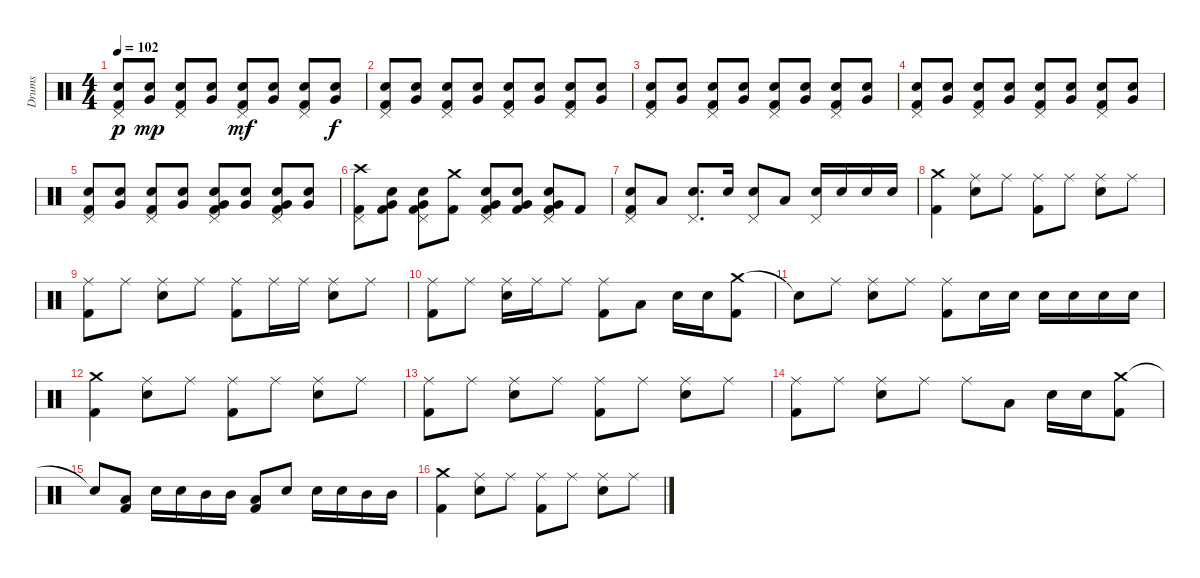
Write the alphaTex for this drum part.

\track ("Drums" "Drums") {instrument percussion}
\staff {score}
\articulation defaults
\ts (4 4)
\tempo 102
\clef neutral
\ks c
("Pedal Hi-Hat (hit)" "Snare (hit) 2" "Kick (hit) 2").8{dy p} ("Snare (hit) 2" "Very Low Tom (hit)").8{dy mp} ("Pedal Hi-Hat (hit)" "Snare (hit) 2" "Kick (hit) 2").8 ("Snare (hit) 2" "Very Low Tom (hit)").8 ("Pedal Hi-Hat (hit)" "Snare (hit) 2" "Kick (hit) 2").8{dy mf} ("Snare (hit) 2" "Very Low Tom (hit)").8 ("Pedal Hi-Hat (hit)" "Snare (hit) 2" "Kick (hit) 2").8 ("Snare (hit) 2" "Very Low Tom (hit)").8{dy f} |
("Pedal Hi-Hat (hit)" "Snare (hit) 2" "Kick (hit) 2").8 ("Snare (hit) 2" "Very Low Tom (hit)").8 ("Pedal Hi-Hat (hit)" "Snare (hit) 2" "Kick (hit) 2").8 ("Snare (hit) 2" "Very Low Tom (hit)").8 ("Pedal Hi-Hat (hit)" "Snare (hit) 2" "Kick (hit) 2").8 ("Snare (hit) 2" "Very Low Tom (hit)").8 ("Pedal Hi-Hat (hit)" "Snare (hit) 2" "Kick (hit) 2").8 ("Snare (hit) 2" "Very Low Tom (hit)").8 |
("Pedal Hi-Hat (hit)" "Snare (hit) 2" "Kick (hit) 2").8 ("Snare (hit) 2" "Very Low Tom (hit)").8 ("Pedal Hi-Hat (hit)" "Snare (hit) 2" "Kick (hit) 2").8 ("Snare (hit) 2" "Very Low Tom (hit)").8 ("Pedal Hi-Hat (hit)" "Snare (hit) 2" "Kick (hit) 2").8 ("Snare (hit) 2" "Very Low Tom (hit)").8 ("Pedal Hi-Hat (hit)" "Snare (hit) 2" "Kick (hit) 2").8 ("Snare (hit) 2" "Very Low Tom (hit)").8 |
("Pedal Hi-Hat (hit)" "Snare (hit) 2" "Kick (hit) 2").8 ("Snare (hit) 2" "Very Low Tom (hit)").8 ("Pedal Hi-Hat (hit)" "Snare (hit) 2" "Kick (hit) 2").8 ("Snare (hit) 2" "Very Low Tom (hit)").8 ("Pedal Hi-Hat (hit)" "Snare (hit) 2" "Kick (hit) 2").8 ("Snare (hit) 2" "Very Low Tom (hit)").8 ("Pedal Hi-Hat (hit)" "Snare (hit) 2" "Kick (hit) 2").8 ("Snare (hit) 2" "Very Low Tom (hit)").8 |
("Pedal Hi-Hat (hit)" "Snare (hit) 2" "Kick (hit) 2").8 ("Snare (hit) 2" "Very Low Tom (hit)").8 ("Pedal Hi-Hat (hit)" "Snare (hit) 2" "Kick (hit) 2").8 ("Snare (hit) 2" "Very Low Tom (hit)").8 ("Pedal Hi-Hat (hit)" "Snare (hit) 2" "Very Low Tom (hit)" "Kick (hit) 2").8 ("Snare (hit) 2" "Very Low Tom (hit)").8 ("Pedal Hi-Hat (hit)" "Snare (hit) 2" "Very Low Tom (hit)" "Kick (hit) 2").8 ("Snare (hit) 2" "Very Low Tom (hit)").8 |
("Crash high (hit)" "Pedal Hi-Hat (hit)" "Kick (hit) 2").8 ("Snare (hit) 2" "Very Low Tom (hit)" "Kick (hit) 2").8 ("Pedal Hi-Hat (hit)" "Snare (hit) 2" "Very Low Tom (hit)" "Kick (hit) 2").8 ("Crash medium (hit)" "Kick (hit) 2").8 ("Pedal Hi-Hat (hit)" "Snare (hit) 2" "Very Low Tom (hit)" "Kick (hit) 2").8 ("Snare (hit) 2" "Very Low Tom (hit)" "Kick (hit) 2").8 ("Pedal Hi-Hat (hit)" "Snare (hit) 2" "Very Low Tom (hit)" "Kick (hit) 2").8 "Kick (hit) 2".8 |
("Pedal Hi-Hat (hit)" "Snare (hit) 2" "Kick (hit) 2").8 "Low Tom (hit)".8 ("Pedal Hi-Hat (hit)" "Snare (hit) 2").8{d} "Snare (hit) 2".16 ("Pedal Hi-Hat (hit)" "Snare (hit) 2").8 "Low Tom (hit)".8 ("Pedal Hi-Hat (hit)" "Snare (hit) 2").16 "Snare (hit) 2".16 "Snare (hit) 2".16 "Snare (hit) 2".16 |
("Crash medium (hit)" "Kick (hit) 2").4 ("Ride (middle)" "Snare (hit) 2").8 "Ride (middle)".8 ("Ride (middle)" "Kick (hit) 2").8 "Ride (middle)".8 ("Ride (middle)" "Snare (hit) 2").8 "Ride (middle)".8 |
("Ride (middle)" "Kick (hit) 2").8 "Ride (middle)".8 ("Ride (middle)" "Snare (hit) 2").8 "Ride (middle)".8 ("Ride (middle)" "Kick (hit) 2").8 "Ride (middle)".16 "Ride (middle)".16 ("Ride (middle)" "Snare (hit) 2").8 "Ride (middle)".8 |
("Ride (middle)" "Kick (hit) 2").8 "Ride (middle)".8 ("Ride (middle)" "Snare (hit) 2").16 "Ride (middle)".16 "Ride (middle)".8 ("Ride (middle)" "Kick (hit) 2").8 "Low Tom (hit)".8 "Snare (hit) 2".16 "Snare (hit) 2".16 ("Crash medium (hit)" "Kick (hit) 2").8 |
"Snare (hit)"{t}.8 "Ride (middle)".8 ("Ride (middle)" "Snare (hit) 2").8 "Ride (middle)".8 ("Ride (middle)" "Kick (hit) 2").8 "Snare (hit) 2".16 "Snare (hit) 2".16 "Snare (hit) 2".16 "Snare (hit) 2".16 "Snare (hit) 2".16 "Snare (hit) 2".16 |
("Crash medium (hit)" "Kick (hit) 2").4 ("Ride (middle)" "Snare (hit) 2").8 "Ride (middle)".8 ("Ride (middle)" "Kick (hit) 2").8 "Ride (middle)".8 ("Ride (middle)" "Snare (hit) 2").8 "Ride (middle)".8 |
("Ride (middle)" "Kick (hit) 2").8 "Ride (middle)".8 ("Ride (middle)" "Snare (hit) 2").8 "Ride (middle)".8 ("Ride (middle)" "Kick (hit) 2").8 "Ride (middle)".8 ("Ride (middle)" "Snare (hit) 2").8 "Ride (middle)".8 |
("Ride (middle)" "Kick (hit) 2").8 "Ride (middle)".8 ("Ride (middle)" "Snare (hit) 2").8 "Ride (middle)".8 "Ride (middle)".8 "Low Tom (hit)".8 "Snare (hit) 2".16 "Snare (hit) 2".16 ("Crash medium (hit)" "Kick (hit) 2").8 |
"Snare (hit)"{t}.8 ("Low Tom (hit)" "Kick (hit) 2").8 "Snare (hit) 2".16 "Snare (hit) 2".16 "Mid Tom (hit)".16 "Mid Tom (hit)".16 ("Low Tom (hit)" "Kick (hit) 2").8 "Snare (hit) 2".8 "Snare (hit) 2".16 "Snare (hit) 2".16 "Mid Tom (hit)".16 "Mid Tom (hit)".16 |
("Crash medium (hit)" "Kick (hit) 2").4 ("Ride (middle)" "Snare (hit) 2").8 "Ride (middle)".8 ("Ride (middle)" "Kick (hit) 2").8 "Ride (middle)".8 ("Ride (middle)" "Snare (hit) 2").8 "Ride (middle)".8
